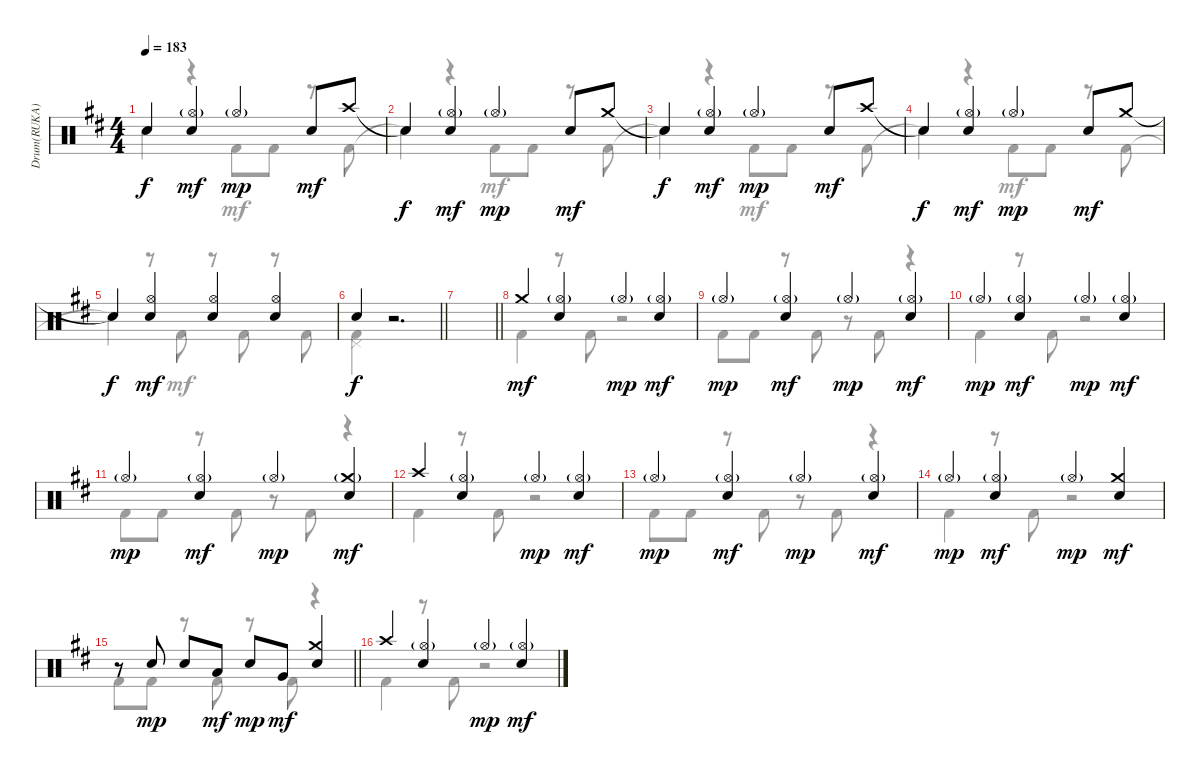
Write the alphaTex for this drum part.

\track ("Drum(RUKA)" "Drum(RUKA)") {instrument percussion}
\staff {score}
\articulation defaults
\voice
\ts (4 4)
\tempo 183
\clef neutral
\ks d "Snare (hit)"{t}.4{dy f}
("Hi-Hat (open)"{g} "Snare (hit) 2").4{dy mf} "Hi-Hat (open)"{g}.4{dy mp} "Snare (hit) 2".8{dy mf} "Crash high (hit)".8 |
"Snare (hit)"{t}.4{dy f} ("Hi-Hat (open)"{g} "Snare (hit) 2").4{dy mf} "Hi-Hat (open)"{g}.4{dy mp} "Snare (hit) 2".8{dy mf} "Crash medium (hit)".8 |
"Snare (hit)"{t}.4{dy f} ("Hi-Hat (open)"{g} "Snare (hit) 2").4{dy mf} "Hi-Hat (open)"{g}.4{dy mp} "Snare (hit) 2".8{dy mf} "Crash high (hit)".8 |
"Snare (hit)"{t}.4{dy f} ("Hi-Hat (open)"{g} "Snare (hit) 2").4{dy mf} "Hi-Hat (open)"{g}.4{dy mp} "Snare (hit) 2".8{dy mf} "Crash medium (hit)".8 |
"Snare (hit)"{t}.4{dy f} ("Hi-Hat (open)" "Snare (hit) 2").4{dy mf} ("Hi-Hat (open)" "Snare (hit) 2").4 ("Hi-Hat (open)" "Snare (hit) 2").4 |
\barLineRight lightlight "Snare (hit) 2".4{dy f}
r.2{d} |
\barLineRight lightlight
|
"Crash medium (hit)".4{dy mf} ("Hi-Hat (open)"{g} "Snare (hit) 2").4 "Hi-Hat (open)"{g}.4{dy mp} ("Hi-Hat (open)"{g} "Snare (hit) 2").4{dy mf} |
"Hi-Hat (open)"{g}.4{dy mp} ("Hi-Hat (open)"{g} "Snare (hit) 2").4{dy mf} "Hi-Hat (open)"{g}.4{dy mp} ("Hi-Hat (open)"{g} "Snare (hit) 2").4{dy mf} |
"Hi-Hat (open)"{g}.4{dy mp} ("Hi-Hat (open)"{g} "Snare (hit) 2").4{dy mf} "Hi-Hat (open)"{g}.4{dy mp} ("Hi-Hat (open)"{g} "Snare (hit) 2").4{dy mf} |
"Hi-Hat (open)"{g}.4{dy mp} ("Hi-Hat (open)"{g} "Snare (hit) 2").4{dy mf} "Hi-Hat (open)"{g}.4{dy mp} ("Crash medium (hit)"{g} "Snare (hit) 2").4{dy mf} |
"Crash high (hit)".4 ("Hi-Hat (open)"{g} "Snare (hit) 2").4 "Hi-Hat (open)"{g}.4{dy mp} ("Hi-Hat (open)"{g} "Snare (hit) 2").4{dy mf} |
"Hi-Hat (open)"{g}.4{dy mp} ("Hi-Hat (open)"{g} "Snare (hit) 2").4{dy mf} "Hi-Hat (open)"{g}.4{dy mp} ("Hi-Hat (open)"{g} "Snare (hit) 2").4{dy mf} |
"Hi-Hat (open)"{g}.4{dy mp} ("Hi-Hat (open)"{g} "Snare (hit) 2").4{dy mf} "Hi-Hat (open)"{g}.4{dy mp} ("Crash medium (hit)" "Snare (hit) 2").4{dy mf} |
\barLineRight lightlight
r.8 "Snare (hit) 2".8{dy mp} "Snare (hit) 2".8 "Low Tom (hit)".8{dy mf} "Snare (hit) 2".8{dy mp} "Very Low Tom (hit)".8{dy mf} ("Crash medium (hit)" "Snare (hit) 2").4 |
"Crash high (hit)".4 ("Hi-Hat (open)"{g} "Snare (hit) 2").4 "Hi-Hat (open)"{g}.4{dy mp} ("Hi-Hat (open)"{g} "Snare (hit) 2").4{dy mf}
\voice
\clef neutral
\ottava regular
\simile none
\ks d "Snare (hit)"{t}.4{dy f}
r.4 "Kick (hit) 2".8{dy mf} "Kick (hit) 2".8 r.8 "Kick (hit) 2".8 |
"Snare (hit)"{t}.4{dy f} r.4 "Kick (hit) 2".8{dy mf} "Kick (hit) 2".8 r.8 "Kick (hit) 2".8 |
"Snare (hit)"{t}.4{dy f} r.4 "Kick (hit) 2".8{dy mf} "Kick (hit) 2".8 r.8 "Kick (hit) 2".8 |
"Snare (hit)"{t}.4{dy f} r.4 "Kick (hit) 2".8{dy mf} "Kick (hit) 2".8 r.8 "Kick (hit) 2".8 |
"Snare (hit)"{t}.4{dy f} r.8 "Kick (hit) 2".8{dy mf} r.8 "Kick (hit) 2".8 r.8 "Kick (hit) 2".8 |
\barLineRight lightlight
("Pedal Hi-Hat (hit)" "Kick (hit) 2").4 r.2{d} |
\barLineRight lightlight
|
"Kick (hit) 2".4 r.8 "Kick (hit) 2".8 r.2 |
"Kick (hit) 2".8 "Kick (hit) 2".8 r.8 "Kick (hit) 2".8 r.8 "Kick (hit) 2".8 r.4 |
"Kick (hit) 2".4 r.8 "Kick (hit) 2".8 r.2 |
"Kick (hit) 2".8 "Kick (hit) 2".8 r.8 "Kick (hit) 2".8 r.8 "Kick (hit) 2".8 r.4 |
"Kick (hit) 2".4 r.8 "Kick (hit) 2".8 r.2 |
"Kick (hit) 2".8 "Kick (hit) 2".8 r.8 "Kick (hit) 2".8 r.8 "Kick (hit) 2".8 r.4 |
"Kick (hit) 2".4 r.8 "Kick (hit) 2".8 r.2 |
\barLineRight lightlight "Kick (hit) 2".8 "Kick (hit) 2".8
r.8 "Kick (hit) 2".8 r.8 "Kick (hit) 2".8 r.4 |
"Kick (hit) 2".4 r.8 "Kick (hit) 2".8 r.2
